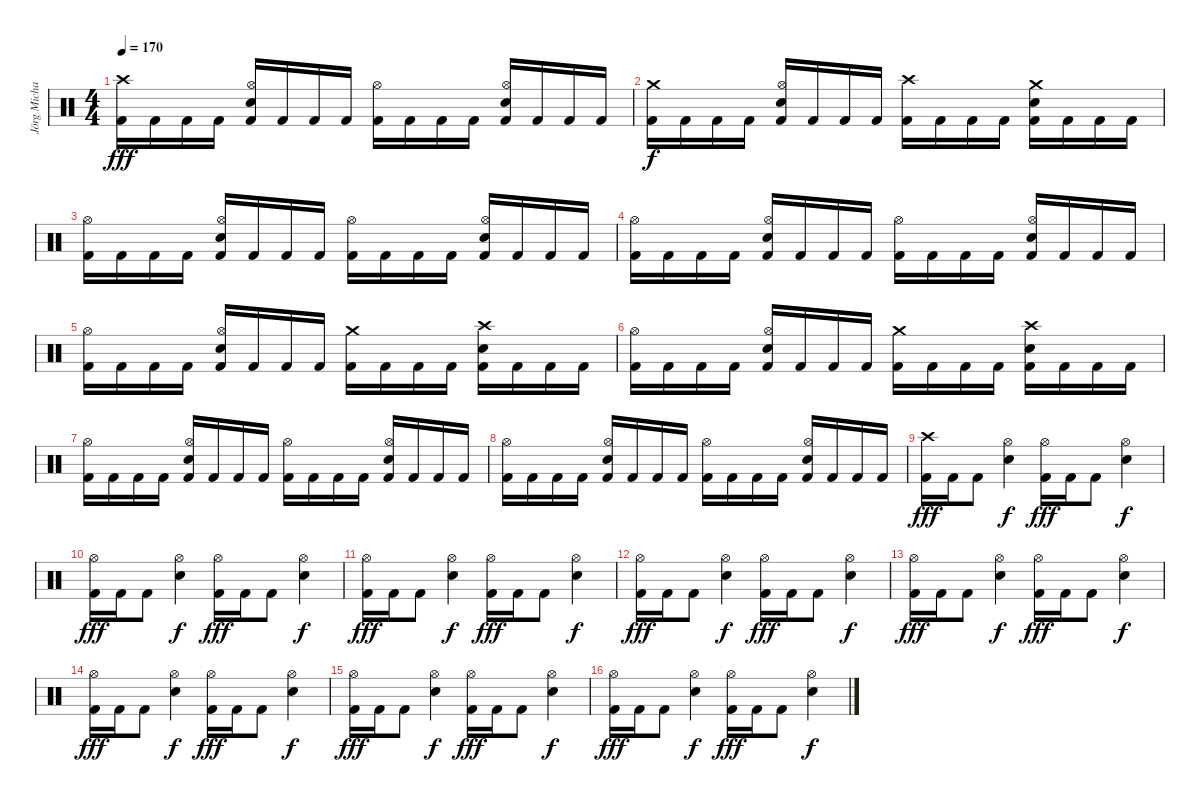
\track ("Jörg Michael" "Jörg Micha") {instrument percussion}
\staff {score}
\articulation defaults
\ts (4 4)
\tempo 170
\clef neutral
\ks c
("Crash high (hit)" "Kick (hit) 2").16{dy fff} "Kick (hit) 2".16 "Kick (hit) 2".16 "Kick (hit) 2".16 ("Hi-Hat (open)" "Snare (hit) 2" "Kick (hit) 2").16 "Kick (hit) 2".16 "Kick (hit) 2".16 "Kick (hit) 2".16 ("Hi-Hat (open)" "Kick (hit) 2").16 "Kick (hit) 2".16 "Kick (hit) 2".16 "Kick (hit) 2".16 ("Hi-Hat (open)" "Snare (hit) 2" "Kick (hit) 2").16 "Kick (hit) 2".16 "Kick (hit) 2".16 "Kick (hit) 2".16 |
("Crash medium (hit)" "Kick (hit) 2").16{dy f} "Kick (hit) 2".16 "Kick (hit) 2".16 "Kick (hit) 2".16 ("Hi-Hat (open)" "Snare (hit) 2" "Kick (hit) 2").16 "Kick (hit) 2".16 "Kick (hit) 2".16 "Kick (hit) 2".16 ("Crash high (hit)" "Kick (hit) 2").16 "Kick (hit) 2".16 "Kick (hit) 2".16 "Kick (hit) 2".16 ("Crash medium (hit)" "Snare (hit) 2" "Kick (hit) 2").16 "Kick (hit) 2".16 "Kick (hit) 2".16 "Kick (hit) 2".16 |
("Hi-Hat (open)" "Kick (hit) 2").16 "Kick (hit) 2".16 "Kick (hit) 2".16 "Kick (hit) 2".16 ("Hi-Hat (open)" "Snare (hit) 2" "Kick (hit) 2").16 "Kick (hit) 2".16 "Kick (hit) 2".16 "Kick (hit) 2".16 ("Hi-Hat (open)" "Kick (hit) 2").16 "Kick (hit) 2".16 "Kick (hit) 2".16 "Kick (hit) 2".16 ("Hi-Hat (open)" "Snare (hit) 2" "Kick (hit) 2").16 "Kick (hit) 2".16 "Kick (hit) 2".16 "Kick (hit) 2".16 |
("Hi-Hat (open)" "Kick (hit) 2").16 "Kick (hit) 2".16 "Kick (hit) 2".16 "Kick (hit) 2".16 ("Hi-Hat (open)" "Snare (hit) 2" "Kick (hit) 2").16 "Kick (hit) 2".16 "Kick (hit) 2".16 "Kick (hit) 2".16 ("Hi-Hat (open)" "Kick (hit) 2").16 "Kick (hit) 2".16 "Kick (hit) 2".16 "Kick (hit) 2".16 ("Hi-Hat (open)" "Snare (hit) 2" "Kick (hit) 2").16 "Kick (hit) 2".16 "Kick (hit) 2".16 "Kick (hit) 2".16 |
("Hi-Hat (open)" "Kick (hit) 2").16 "Kick (hit) 2".16 "Kick (hit) 2".16 "Kick (hit) 2".16 ("Hi-Hat (open)" "Snare (hit) 2" "Kick (hit) 2").16 "Kick (hit) 2".16 "Kick (hit) 2".16 "Kick (hit) 2".16 ("Crash medium (hit)" "Kick (hit) 2").16 "Kick (hit) 2".16 "Kick (hit) 2".16 "Kick (hit) 2".16 ("Crash high (hit)" "Snare (hit) 2" "Kick (hit) 2").16 "Kick (hit) 2".16 "Kick (hit) 2".16 "Kick (hit) 2".16 |
("Hi-Hat (open)" "Kick (hit) 2").16 "Kick (hit) 2".16 "Kick (hit) 2".16 "Kick (hit) 2".16 ("Hi-Hat (open)" "Snare (hit) 2" "Kick (hit) 2").16 "Kick (hit) 2".16 "Kick (hit) 2".16 "Kick (hit) 2".16 ("Crash medium (hit)" "Kick (hit) 2").16 "Kick (hit) 2".16 "Kick (hit) 2".16 "Kick (hit) 2".16 ("Crash high (hit)" "Snare (hit) 2" "Kick (hit) 2").16 "Kick (hit) 2".16 "Kick (hit) 2".16 "Kick (hit) 2".16 |
("Hi-Hat (open)" "Kick (hit) 2").16 "Kick (hit) 2".16 "Kick (hit) 2".16 "Kick (hit) 2".16 ("Hi-Hat (open)" "Snare (hit) 2" "Kick (hit) 2").16 "Kick (hit) 2".16 "Kick (hit) 2".16 "Kick (hit) 2".16 ("Hi-Hat (open)" "Kick (hit) 2").16 "Kick (hit) 2".16 "Kick (hit) 2".16 "Kick (hit) 2".16 ("Hi-Hat (open)" "Snare (hit) 2" "Kick (hit) 2").16 "Kick (hit) 2".16 "Kick (hit) 2".16 "Kick (hit) 2".16 |
("Hi-Hat (open)" "Kick (hit) 2").16 "Kick (hit) 2".16 "Kick (hit) 2".16 "Kick (hit) 2".16 ("Hi-Hat (open)" "Snare (hit) 2" "Kick (hit) 2").16 "Kick (hit) 2".16 "Kick (hit) 2".16 "Kick (hit) 2".16 ("Hi-Hat (open)" "Kick (hit) 2").16 "Kick (hit) 2".16 "Kick (hit) 2".16 "Kick (hit) 2".16 ("Hi-Hat (open)" "Snare (hit) 2" "Kick (hit) 2").16 "Kick (hit) 2".16 "Kick (hit) 2".16 "Kick (hit) 2".16 |
("Crash high (hit)" "Kick (hit) 2").16{dy fff} "Kick (hit) 2".16 "Kick (hit) 2".8 ("Hi-Hat (open)" "Snare (hit) 2").4{dy f} ("Hi-Hat (open)" "Kick (hit) 2").16{dy fff} "Kick (hit) 2".16 "Kick (hit) 2".8 ("Hi-Hat (open)" "Snare (hit) 2").4{dy f} |
("Hi-Hat (open)" "Kick (hit) 2").16{dy fff} "Kick (hit) 2".16 "Kick (hit) 2".8 ("Hi-Hat (open)" "Snare (hit) 2").4{dy f} ("Hi-Hat (open)" "Kick (hit) 2").16{dy fff} "Kick (hit) 2".16 "Kick (hit) 2".8 ("Hi-Hat (open)" "Snare (hit) 2").4{dy f} |
("Hi-Hat (open)" "Kick (hit) 2").16{dy fff} "Kick (hit) 2".16 "Kick (hit) 2".8 ("Hi-Hat (open)" "Snare (hit) 2").4{dy f} ("Hi-Hat (open)" "Kick (hit) 2").16{dy fff} "Kick (hit) 2".16 "Kick (hit) 2".8 ("Hi-Hat (open)" "Snare (hit) 2").4{dy f} |
("Hi-Hat (open)" "Kick (hit) 2").16{dy fff} "Kick (hit) 2".16 "Kick (hit) 2".8 ("Hi-Hat (open)" "Snare (hit) 2").4{dy f} ("Hi-Hat (open)" "Kick (hit) 2").16{dy fff} "Kick (hit) 2".16 "Kick (hit) 2".8 ("Hi-Hat (open)" "Snare (hit) 2").4{dy f} |
("Hi-Hat (open)" "Kick (hit) 2").16{dy fff} "Kick (hit) 2".16 "Kick (hit) 2".8 ("Hi-Hat (open)" "Snare (hit) 2").4{dy f} ("Hi-Hat (open)" "Kick (hit) 2").16{dy fff} "Kick (hit) 2".16 "Kick (hit) 2".8 ("Hi-Hat (open)" "Snare (hit) 2").4{dy f} |
("Hi-Hat (open)" "Kick (hit) 2").16{dy fff} "Kick (hit) 2".16 "Kick (hit) 2".8 ("Hi-Hat (open)" "Snare (hit) 2").4{dy f} ("Hi-Hat (open)" "Kick (hit) 2").16{dy fff} "Kick (hit) 2".16 "Kick (hit) 2".8 ("Hi-Hat (open)" "Snare (hit) 2").4{dy f} |
("Hi-Hat (open)" "Kick (hit) 2").16{dy fff} "Kick (hit) 2".16 "Kick (hit) 2".8 ("Hi-Hat (open)" "Snare (hit) 2").4{dy f} ("Hi-Hat (open)" "Kick (hit) 2").16{dy fff} "Kick (hit) 2".16 "Kick (hit) 2".8 ("Hi-Hat (open)" "Snare (hit) 2").4{dy f} |
("Hi-Hat (open)" "Kick (hit) 2").16{dy fff} "Kick (hit) 2".16 "Kick (hit) 2".8 ("Hi-Hat (open)" "Snare (hit) 2").4{dy f} ("Hi-Hat (open)" "Kick (hit) 2").16{dy fff} "Kick (hit) 2".16 "Kick (hit) 2".8 ("Hi-Hat (open)" "Snare (hit) 2").4{dy f}
